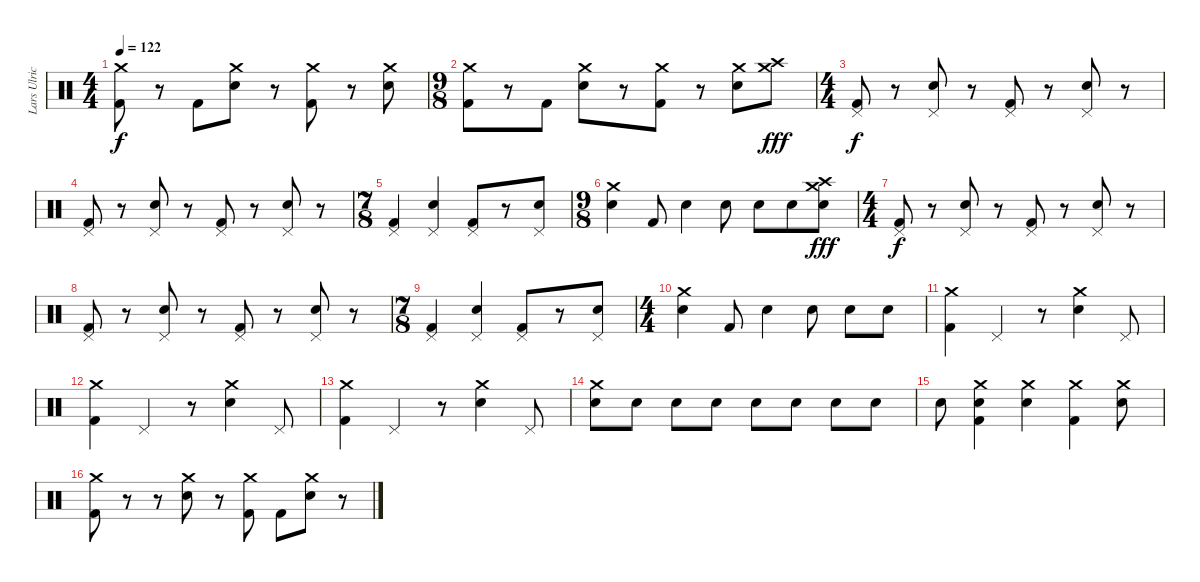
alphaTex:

\track ("Lars Ulrich" "Lars Ulric") {instrument percussion}
\staff {score}
\articulation defaults
\ts (4 4)
\tempo 122
\clef neutral
\ks c
("Crash medium (hit)" "Kick (hit) 2").8{dy f} r.8 "Kick (hit) 2".8 ("Crash medium (hit)" "Electric Snare (hit)").8 r.8 ("Crash medium (hit)" "Kick (hit) 2").8 r.8 ("Crash medium (hit)" "Electric Snare (hit)").8 |
\ts (9 8)
("Crash medium (hit)" "Kick (hit) 2").8 r.8 "Kick (hit) 2".8 ("Crash medium (hit)" "Electric Snare (hit)").8 r.8 ("Crash medium (hit)" "Kick (hit) 2").8 r.8 ("Crash medium (hit)" "Electric Snare (hit)").8 ("Crash high (hit)" "Crash medium (hit)").8{dy fff} |
\ts (4 4)
("Pedal Hi-Hat (hit)" "Kick (hit) 2").8{dy f} r.8 ("Pedal Hi-Hat (hit)" "Electric Snare (hit)").8 r.8 ("Pedal Hi-Hat (hit)" "Kick (hit) 2").8 r.8 ("Pedal Hi-Hat (hit)" "Electric Snare (hit)").8 r.8 |
("Pedal Hi-Hat (hit)" "Kick (hit) 2").8 r.8 ("Pedal Hi-Hat (hit)" "Electric Snare (hit)").8 r.8 ("Pedal Hi-Hat (hit)" "Kick (hit) 2").8 r.8 ("Pedal Hi-Hat (hit)" "Electric Snare (hit)").8 r.8 |
\ts (7 8)
("Pedal Hi-Hat (hit)" "Kick (hit) 2").4 ("Pedal Hi-Hat (hit)" "Electric Snare (hit)").4 ("Pedal Hi-Hat (hit)" "Kick (hit) 2").8 r.8 ("Pedal Hi-Hat (hit)" "Electric Snare (hit)").8 |
\ts (9 8)
("Crash medium (hit)" "Electric Snare (hit)").4 "Kick (hit) 2".8 "Electric Snare (hit)".4 "Electric Snare (hit)".8 "Electric Snare (hit)".8 "Electric Snare (hit)".8 ("Crash high (hit)" "Crash medium (hit)" "Electric Snare (hit)").8{dy fff} |
\ts (4 4)
("Pedal Hi-Hat (hit)" "Kick (hit) 2").8{dy f} r.8 ("Pedal Hi-Hat (hit)" "Electric Snare (hit)").8 r.8 ("Pedal Hi-Hat (hit)" "Kick (hit) 2").8 r.8 ("Pedal Hi-Hat (hit)" "Electric Snare (hit)").8 r.8 |
("Pedal Hi-Hat (hit)" "Kick (hit) 2").8 r.8 ("Pedal Hi-Hat (hit)" "Electric Snare (hit)").8 r.8 ("Pedal Hi-Hat (hit)" "Kick (hit) 2").8 r.8 ("Pedal Hi-Hat (hit)" "Electric Snare (hit)").8 r.8 |
\ts (7 8)
("Pedal Hi-Hat (hit)" "Kick (hit) 2").4 ("Pedal Hi-Hat (hit)" "Electric Snare (hit)").4 ("Pedal Hi-Hat (hit)" "Kick (hit) 2").8 r.8 ("Pedal Hi-Hat (hit)" "Electric Snare (hit)").8 |
\ts (4 4)
("Crash medium (hit)" "Electric Snare (hit)").4 "Kick (hit) 2".8 "Electric Snare (hit)".4 "Electric Snare (hit)".8 "Electric Snare (hit)".8 "Electric Snare (hit)".8 |
("Crash medium (hit)" "Kick (hit) 2").4 "Pedal Hi-Hat (hit)".4 r.8 ("Crash medium (hit)" "Electric Snare (hit)").4 "Pedal Hi-Hat (hit)".8 |
("Crash medium (hit)" "Kick (hit) 2").4 "Pedal Hi-Hat (hit)".4 r.8 ("Crash medium (hit)" "Electric Snare (hit)").4 "Pedal Hi-Hat (hit)".8 |
("Crash medium (hit)" "Kick (hit) 2").4 "Pedal Hi-Hat (hit)".4 r.8 ("Crash medium (hit)" "Electric Snare (hit)").4 "Pedal Hi-Hat (hit)".8 |
("Crash medium (hit)" "Electric Snare (hit)").8 "Electric Snare (hit)".8 "Electric Snare (hit)".8 "Electric Snare (hit)".8 "Electric Snare (hit)".8 "Electric Snare (hit)".8 "Electric Snare (hit)".8 "Electric Snare (hit)".8 |
"Electric Snare (hit)".8 ("Electric Snare (hit)" "Crash medium (hit)" "Kick (hit) 2").4 ("Crash medium (hit)" "Electric Snare (hit)").4 ("Crash medium (hit)" "Kick (hit) 2").4 ("Crash medium (hit)" "Electric Snare (hit)").8 |
("Crash medium (hit)" "Kick (hit) 2").8 r.8 r.8 ("Crash medium (hit)" "Electric Snare (hit)").8 r.8 ("Crash medium (hit)" "Kick (hit) 2").8 "Kick (hit) 2".8 ("Crash medium (hit)" "Electric Snare (hit)").8 r.8
